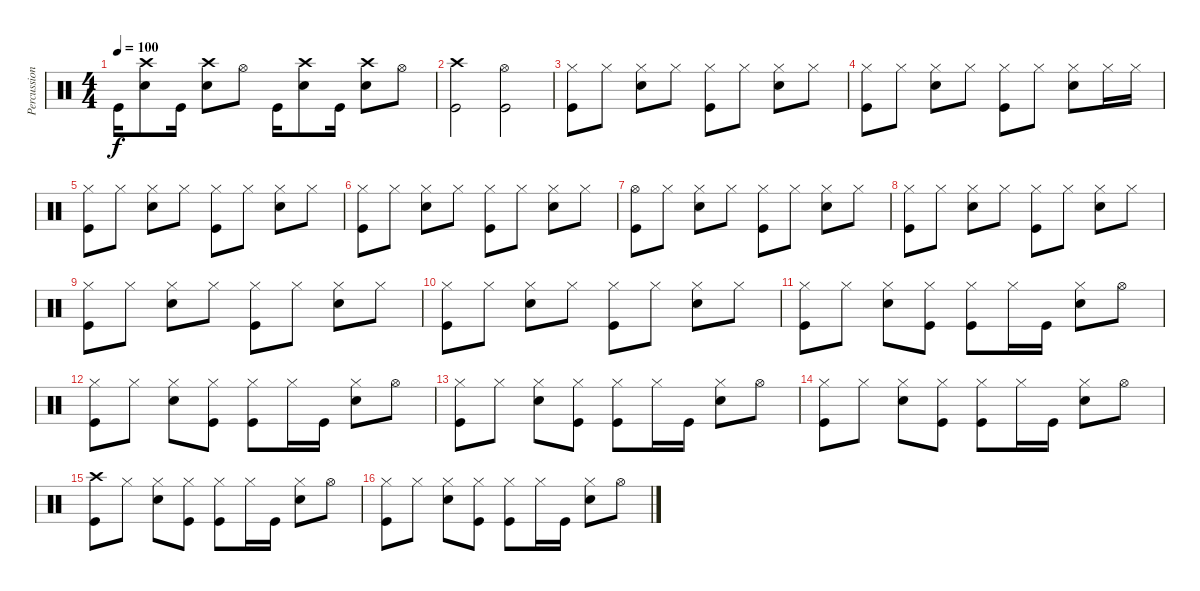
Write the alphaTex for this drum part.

\track ("Percussion" "Percussion") {instrument percussion}
\staff {score}
\articulation defaults
\ts (4 4)
\tempo 100
\clef neutral
\ks c "Kick (hit)".16{dy f}
("Crash high (hit)" "Electric Snare (hit)").8 "Kick (hit)".16 ("Crash high (hit)" "Electric Snare (hit)").8 "Hi-Hat (open)".8 "Kick (hit)".16 ("Crash high (hit)" "Electric Snare (hit)").8 "Kick (hit)".16 ("Crash high (hit)" "Electric Snare (hit)").8 "Hi-Hat (open)".8 |
("Crash high (hit)" "Kick (hit)").2 ("Hi-Hat (open)" "Kick (hit)").2 |
("Hi-Hat (closed)" "Kick (hit)").8 "Hi-Hat (closed)".8 ("Hi-Hat (closed)" "Electric Snare (hit)").8 "Hi-Hat (closed)".8 ("Hi-Hat (closed)" "Kick (hit)").8 "Hi-Hat (closed)".8 ("Hi-Hat (closed)" "Electric Snare (hit)").8 "Hi-Hat (closed)".8 |
("Hi-Hat (closed)" "Kick (hit)").8 "Hi-Hat (closed)".8 ("Hi-Hat (closed)" "Electric Snare (hit)").8 "Hi-Hat (closed)".8 ("Hi-Hat (closed)" "Kick (hit)").8 "Hi-Hat (closed)".8 ("Hi-Hat (closed)" "Electric Snare (hit)").8 "Hi-Hat (closed)".16 "Hi-Hat (closed)".16 |
("Hi-Hat (closed)" "Kick (hit)").8 "Hi-Hat (closed)".8 ("Hi-Hat (closed)" "Electric Snare (hit)").8 "Hi-Hat (closed)".8 ("Hi-Hat (closed)" "Kick (hit)").8 "Hi-Hat (closed)".8 ("Hi-Hat (closed)" "Electric Snare (hit)").8 "Hi-Hat (closed)".8 |
("Hi-Hat (closed)" "Kick (hit)").8 "Hi-Hat (closed)".8 ("Hi-Hat (closed)" "Electric Snare (hit)").8 "Hi-Hat (closed)".8 ("Hi-Hat (closed)" "Kick (hit)").8 "Hi-Hat (closed)".8 ("Hi-Hat (closed)" "Electric Snare (hit)").8 "Hi-Hat (closed)".8 |
("Hi-Hat (open)" "Kick (hit)").8 "Hi-Hat (closed)".8 ("Hi-Hat (closed)" "Electric Snare (hit)").8 "Hi-Hat (closed)".8 ("Hi-Hat (closed)" "Kick (hit)").8 "Hi-Hat (closed)".8 ("Hi-Hat (closed)" "Electric Snare (hit)").8 "Hi-Hat (closed)".8 |
("Hi-Hat (closed)" "Kick (hit)").8 "Hi-Hat (closed)".8 ("Hi-Hat (closed)" "Electric Snare (hit)").8 "Hi-Hat (closed)".8 ("Hi-Hat (closed)" "Kick (hit)").8 "Hi-Hat (closed)".8 ("Hi-Hat (closed)" "Electric Snare (hit)").8 "Hi-Hat (closed)".8 |
("Hi-Hat (closed)" "Kick (hit)").8 "Hi-Hat (closed)".8 ("Hi-Hat (closed)" "Electric Snare (hit)").8 "Hi-Hat (closed)".8 ("Hi-Hat (closed)" "Kick (hit)").8 "Hi-Hat (closed)".8 ("Hi-Hat (closed)" "Electric Snare (hit)").8 "Hi-Hat (closed)".8 |
("Hi-Hat (closed)" "Kick (hit)").8 "Hi-Hat (closed)".8 ("Hi-Hat (closed)" "Electric Snare (hit)").8 "Hi-Hat (closed)".8 ("Hi-Hat (closed)" "Kick (hit)").8 "Hi-Hat (closed)".8 ("Hi-Hat (closed)" "Electric Snare (hit)").8 "Hi-Hat (closed)".8 |
("Hi-Hat (closed)" "Kick (hit)").8 "Hi-Hat (closed)".8 ("Hi-Hat (closed)" "Electric Snare (hit)").8 ("Hi-Hat (closed)" "Kick (hit)").8 ("Hi-Hat (closed)" "Kick (hit)").8 "Hi-Hat (closed)".16 "Kick (hit)".16 ("Hi-Hat (closed)" "Electric Snare (hit)").8 "Hi-Hat (open)".8 |
("Hi-Hat (closed)" "Kick (hit)").8 "Hi-Hat (closed)".8 ("Hi-Hat (closed)" "Electric Snare (hit)").8 ("Hi-Hat (closed)" "Kick (hit)").8 ("Hi-Hat (closed)" "Kick (hit)").8 "Hi-Hat (closed)".16 "Kick (hit)".16 ("Hi-Hat (closed)" "Electric Snare (hit)").8 "Hi-Hat (open)".8 |
("Hi-Hat (closed)" "Kick (hit)").8 "Hi-Hat (closed)".8 ("Hi-Hat (closed)" "Electric Snare (hit)").8 ("Hi-Hat (closed)" "Kick (hit)").8 ("Hi-Hat (closed)" "Kick (hit)").8 "Hi-Hat (closed)".16 "Kick (hit)".16 ("Hi-Hat (closed)" "Electric Snare (hit)").8 "Hi-Hat (open)".8 |
("Hi-Hat (closed)" "Kick (hit)").8 "Hi-Hat (closed)".8 ("Hi-Hat (closed)" "Electric Snare (hit)").8 ("Hi-Hat (closed)" "Kick (hit)").8 ("Hi-Hat (closed)" "Kick (hit)").8 "Hi-Hat (closed)".16 "Kick (hit)".16 ("Hi-Hat (closed)" "Electric Snare (hit)").8 "Hi-Hat (open)".8 |
("Crash high (hit)" "Kick (hit)").8 "Hi-Hat (closed)".8 ("Hi-Hat (closed)" "Electric Snare (hit)").8 ("Hi-Hat (closed)" "Kick (hit)").8 ("Hi-Hat (closed)" "Kick (hit)").8 "Hi-Hat (closed)".16 "Kick (hit)".16 ("Hi-Hat (closed)" "Electric Snare (hit)").8 "Hi-Hat (open)".8 |
("Hi-Hat (closed)" "Kick (hit)").8 "Hi-Hat (closed)".8 ("Hi-Hat (closed)" "Electric Snare (hit)").8 ("Hi-Hat (closed)" "Kick (hit)").8 ("Hi-Hat (closed)" "Kick (hit)").8 "Hi-Hat (closed)".16 "Kick (hit)".16 ("Hi-Hat (closed)" "Electric Snare (hit)").8 "Hi-Hat (open)".8
